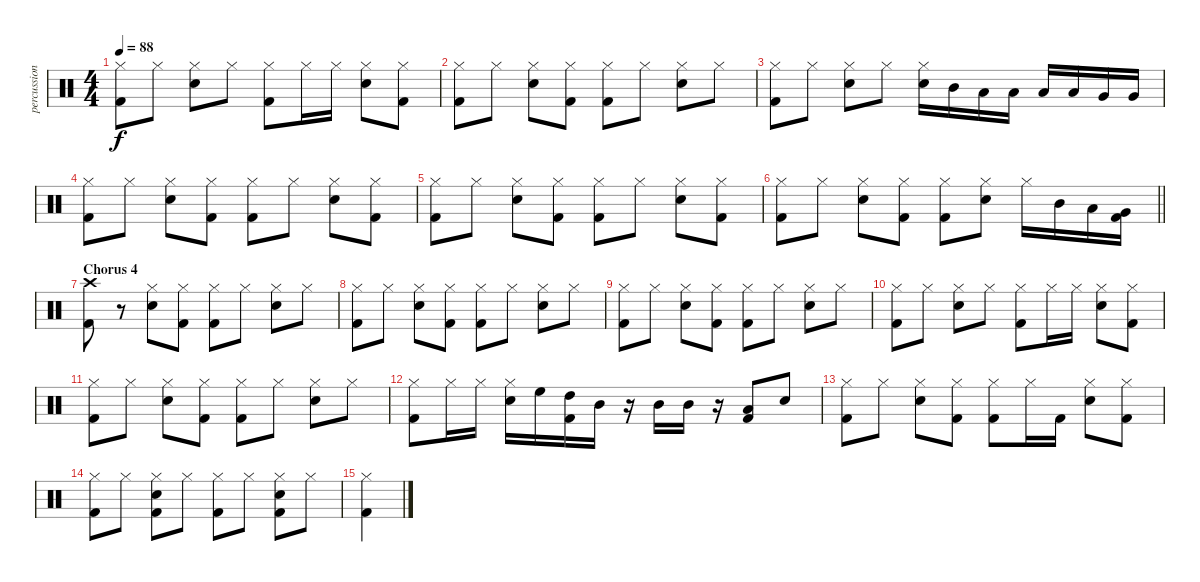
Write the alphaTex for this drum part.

\track ("percussion" "percussion") {instrument percussion}
\staff {score}
\articulation defaults
\ts (4 4)
\tempo 88
\clef neutral
\ks c
("Hi-Hat (closed)" "Kick (hit) 2").8{dy f} "Hi-Hat (closed)".8 ("Snare (hit) 2" "Hi-Hat (closed)").8 "Hi-Hat (closed)".8 ("Hi-Hat (closed)" "Kick (hit) 2").8 "Hi-Hat (closed)".16 "Hi-Hat (closed)".16 ("Snare (hit) 2" "Hi-Hat (closed)").8 ("Hi-Hat (closed)" "Kick (hit) 2").8 |
("Hi-Hat (closed)" "Kick (hit) 2").8 "Hi-Hat (closed)".8 ("Snare (hit) 2" "Hi-Hat (closed)").8 ("Hi-Hat (closed)" "Kick (hit) 2").8 ("Hi-Hat (closed)" "Kick (hit) 2").8 "Hi-Hat (closed)".8 ("Snare (hit) 2" "Hi-Hat (closed)").8 "Hi-Hat (closed)".8 |
("Hi-Hat (closed)" "Kick (hit) 2").8 "Hi-Hat (closed)".8 ("Snare (hit) 2" "Hi-Hat (closed)").8 "Hi-Hat (closed)".8 ("Snare (hit) 2" "Hi-Hat (closed)").16 "Mid Tom (hit)".16 "Low Tom (hit)".16 "Low Tom (hit)".16 "Low Tom (hit)".16 "Low Tom (hit)".16 "Very Low Tom (hit)".16 "Very Low Tom (hit)".16 |
("Hi-Hat (closed)" "Kick (hit) 2").8 "Hi-Hat (closed)".8 ("Snare (hit) 2" "Hi-Hat (closed)").8 ("Hi-Hat (closed)" "Kick (hit) 2").8 ("Hi-Hat (closed)" "Kick (hit) 2").8 "Hi-Hat (closed)".8 ("Snare (hit) 2" "Hi-Hat (closed)").8 ("Hi-Hat (closed)" "Kick (hit) 2").8 |
("Hi-Hat (closed)" "Kick (hit) 2").8 "Hi-Hat (closed)".8 ("Snare (hit) 2" "Hi-Hat (closed)").8 ("Hi-Hat (closed)" "Kick (hit) 2").8 ("Hi-Hat (closed)" "Kick (hit) 2").8 "Hi-Hat (closed)".8 ("Snare (hit) 2" "Hi-Hat (closed)").8 ("Hi-Hat (closed)" "Kick (hit) 2").8 |
\barLineRight lightlight
("Hi-Hat (closed)" "Kick (hit) 2").8 "Hi-Hat (closed)".8 ("Snare (hit) 2" "Hi-Hat (closed)").8 ("Hi-Hat (closed)" "Kick (hit) 2").8 ("Hi-Hat (closed)" "Kick (hit) 2").8 ("Snare (hit) 2" "Hi-Hat (closed)").8 "Hi-Hat (closed)".16 "Mid Tom (hit)".16 "Low Tom (hit)".16 ("Very Low Tom (hit)" "Kick (hit) 2").16 |
\section ("" "Chorus 4")
("Crash high (hit)" "Kick (hit) 2").8 r.8 ("Snare (hit) 2" "Hi-Hat (closed)").8 ("Hi-Hat (closed)" "Kick (hit) 2").8 ("Hi-Hat (closed)" "Kick (hit) 2").8 "Hi-Hat (closed)".8 ("Snare (hit) 2" "Hi-Hat (closed)").8 "Hi-Hat (closed)".8 |
("Hi-Hat (closed)" "Kick (hit) 2").8 "Hi-Hat (closed)".8 ("Snare (hit) 2" "Hi-Hat (closed)").8 ("Hi-Hat (closed)" "Kick (hit) 2").8 ("Hi-Hat (closed)" "Kick (hit) 2").8 "Hi-Hat (closed)".8 ("Snare (hit) 2" "Hi-Hat (closed)").8 "Hi-Hat (closed)".8 |
("Hi-Hat (closed)" "Kick (hit) 2").8 "Hi-Hat (closed)".8 ("Snare (hit) 2" "Hi-Hat (closed)").8 ("Hi-Hat (closed)" "Kick (hit) 2").8 ("Hi-Hat (closed)" "Kick (hit) 2").8 "Hi-Hat (closed)".8 ("Snare (hit) 2" "Hi-Hat (closed)").8 "Hi-Hat (closed)".8 |
("Hi-Hat (closed)" "Kick (hit) 2").8 "Hi-Hat (closed)".8 ("Snare (hit) 2" "Hi-Hat (closed)").8 "Hi-Hat (closed)".8 ("Hi-Hat (closed)" "Kick (hit) 2").8 "Hi-Hat (closed)".16 "Hi-Hat (closed)".16 ("Snare (hit) 2" "Hi-Hat (closed)").8 ("Hi-Hat (closed)" "Kick (hit) 2").8 |
("Hi-Hat (closed)" "Kick (hit) 2").8 "Hi-Hat (closed)".8 ("Snare (hit) 2" "Hi-Hat (closed)").8 ("Hi-Hat (closed)" "Kick (hit) 2").8 ("Hi-Hat (closed)" "Kick (hit) 2").8 "Hi-Hat (closed)".8 ("Snare (hit) 2" "Hi-Hat (closed)").8 "Hi-Hat (closed)".8 |
("Hi-Hat (closed)" "Kick (hit) 2").8 "Hi-Hat (closed)".16 "Hi-Hat (closed)".16 ("Snare (hit) 2" "Hi-Hat (closed)").16 "High Floor Tom (hit)".16 ("High Tom (hit)" "Kick (hit) 2").16 "Mid Tom (hit)".16 r.16 "Mid Tom (hit)".16 "Mid Tom (hit)".16 r.16 ("Low Tom (hit)" "Kick (hit) 2").8 "Snare (hit) 2".8 |
("Hi-Hat (closed)" "Kick (hit) 2").8 "Hi-Hat (closed)".8 ("Snare (hit) 2" "Hi-Hat (closed)").8 ("Hi-Hat (closed)" "Kick (hit) 2").8 ("Hi-Hat (closed)" "Kick (hit) 2").8 "Hi-Hat (closed)".16 "Kick (hit) 2".16 ("Snare (hit) 2" "Hi-Hat (closed)").8 ("Hi-Hat (closed)" "Kick (hit) 2").8 |
("Hi-Hat (closed)" "Kick (hit) 2").8 "Hi-Hat (closed)".8 ("Snare (hit) 2" "Hi-Hat (closed)" "Kick (hit) 2").8 "Hi-Hat (closed)".8 ("Hi-Hat (closed)" "Kick (hit) 2").8 "Hi-Hat (closed)".8 ("Snare (hit) 2" "Hi-Hat (closed)" "Kick (hit) 2").8 "Hi-Hat (closed)".8 |
("Hi-Hat (closed)" "Kick (hit) 2").4
